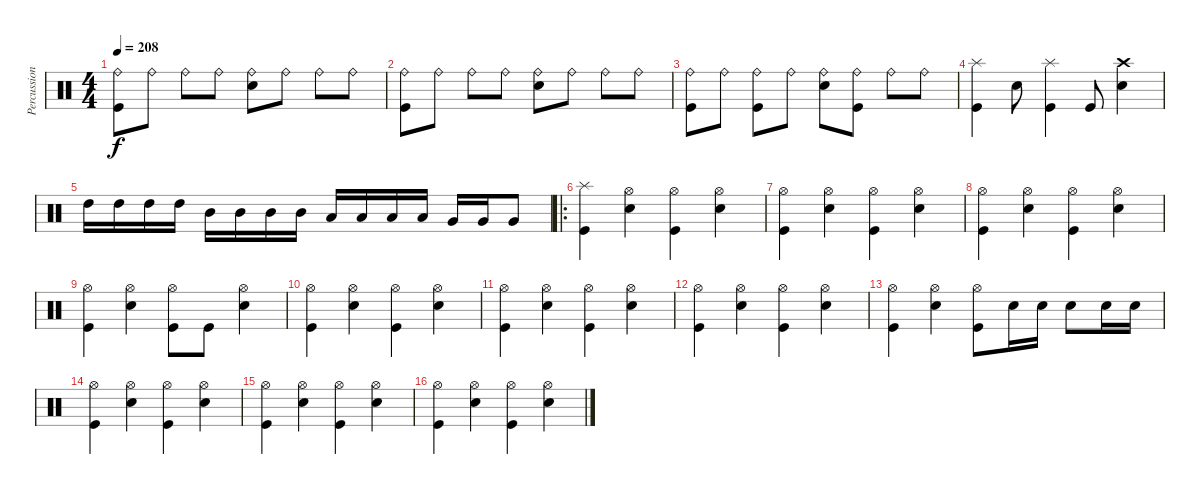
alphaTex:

\track ("Percussions" "Percussion") {instrument percussion}
\staff {score}
\articulation defaults
\ts (4 4)
\tempo 208
\clef neutral
\ks c
("Kick (hit)" "Ride (bell)").8{dy f} "Ride (bell)".8 "Ride (bell)".8 "Ride (bell)".8 ("Electric Snare (hit)" "Ride (bell)").8 "Ride (bell)".8 "Ride (bell)".8 "Ride (bell)".8 |
("Kick (hit)" "Ride (bell)").8 "Ride (bell)".8 "Ride (bell)".8 "Ride (bell)".8 ("Electric Snare (hit)" "Ride (bell)").8 "Ride (bell)".8 "Ride (bell)".8 "Ride (bell)".8 |
("Kick (hit)" "Ride (bell)").8 "Ride (bell)".8 ("Kick (hit)" "Ride (bell)").8 "Ride (bell)".8 ("Electric Snare (hit)" "Ride (bell)").8 ("Kick (hit)" "Ride (bell)").8 "Ride (bell)".8 "Ride (bell)".8 |
("Kick (hit)" "Splash (hit)").4 "Electric Snare (hit)".8 ("Kick (hit)" "Splash (hit)").4 "Kick (hit)".8 ("Electric Snare (hit)" "Crash high (hit)").4 |
"High Tom (hit)".16 "High Tom (hit)".16 "High Tom (hit)".16 "High Tom (hit)".16 "Mid Tom (hit)".16 "Mid Tom (hit)".16 "Mid Tom (hit)".16 "Mid Tom (hit)".16 "Low Tom (hit)".16 "Low Tom (hit)".16 "Low Tom (hit)".16 "Low Tom (hit)".16 "Very Low Tom (hit)".16 "Very Low Tom (hit)".16 "Very Low Tom (hit)".8 |
\ro
("Kick (hit)" "Splash (hit)").4 ("Electric Snare (hit)" "Hi-Hat (open)").4 ("Kick (hit)" "Hi-Hat (open)").4 ("Electric Snare (hit)" "Hi-Hat (open)").4 |
("Kick (hit)" "Hi-Hat (open)").4 ("Electric Snare (hit)" "Hi-Hat (open)").4 ("Kick (hit)" "Hi-Hat (open)").4 ("Electric Snare (hit)" "Hi-Hat (open)").4 |
("Kick (hit)" "Hi-Hat (open)").4 ("Electric Snare (hit)" "Hi-Hat (open)").4 ("Kick (hit)" "Hi-Hat (open)").4 ("Electric Snare (hit)" "Hi-Hat (open)").4 |
("Kick (hit)" "Hi-Hat (open)").4 ("Electric Snare (hit)" "Hi-Hat (open)").4 ("Kick (hit)" "Hi-Hat (open)").8 "Kick (hit)".8 ("Electric Snare (hit)" "Hi-Hat (open)").4 |
("Kick (hit)" "Hi-Hat (open)").4 ("Electric Snare (hit)" "Hi-Hat (open)").4 ("Kick (hit)" "Hi-Hat (open)").4 ("Electric Snare (hit)" "Hi-Hat (open)").4 |
("Kick (hit)" "Hi-Hat (open)").4 ("Electric Snare (hit)" "Hi-Hat (open)").4 ("Kick (hit)" "Hi-Hat (open)").4 ("Electric Snare (hit)" "Hi-Hat (open)").4 |
("Kick (hit)" "Hi-Hat (open)").4 ("Electric Snare (hit)" "Hi-Hat (open)").4 ("Kick (hit)" "Hi-Hat (open)").4 ("Electric Snare (hit)" "Hi-Hat (open)").4 |
("Kick (hit)" "Hi-Hat (open)").4 ("Electric Snare (hit)" "Hi-Hat (open)").4 ("Kick (hit)" "Hi-Hat (open)").8 "Electric Snare (hit)".16 "Electric Snare (hit)".16 "Electric Snare (hit)".8 "Electric Snare (hit)".16 "Electric Snare (hit)".16 |
("Kick (hit)" "Hi-Hat (open)").4 ("Electric Snare (hit)" "Hi-Hat (open)").4 ("Kick (hit)" "Hi-Hat (open)").4 ("Electric Snare (hit)" "Hi-Hat (open)").4 |
("Kick (hit)" "Hi-Hat (open)").4 ("Electric Snare (hit)" "Hi-Hat (open)").4 ("Kick (hit)" "Hi-Hat (open)").4 ("Electric Snare (hit)" "Hi-Hat (open)").4 |
("Kick (hit)" "Hi-Hat (open)").4 ("Electric Snare (hit)" "Hi-Hat (open)").4 ("Kick (hit)" "Hi-Hat (open)").4 ("Electric Snare (hit)" "Hi-Hat (open)").4
